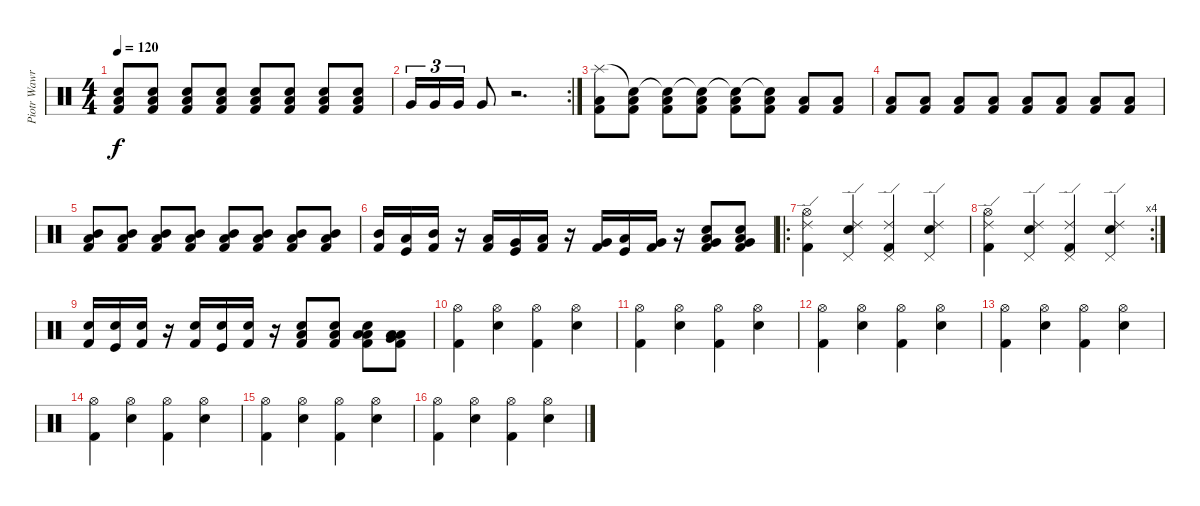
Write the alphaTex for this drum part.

\track ("Piotr Wawrzeniuk" "Piotr Wawr") {instrument percussion}
\staff {score}
\articulation defaults
\ts (4 4)
\tempo 120
\clef neutral
\ks c
("Electric Snare (hit)" "Low Floor Tom (hit)" "Kick (hit) 2").8{dy f} ("Electric Snare (hit)" "Low Floor Tom (hit)" "Kick (hit) 2").8 ("Electric Snare (hit)" "Low Floor Tom (hit)" "Kick (hit) 2").8 ("Electric Snare (hit)" "Low Floor Tom (hit)" "Kick (hit) 2").8 ("Electric Snare (hit)" "Low Floor Tom (hit)" "Kick (hit) 2").8 ("Electric Snare (hit)" "Low Floor Tom (hit)" "Kick (hit) 2").8 ("Electric Snare (hit)" "Low Floor Tom (hit)" "Kick (hit) 2").8 ("Electric Snare (hit)" "Low Floor Tom (hit)" "Kick (hit) 2").8 |
\rc 2 "Very Low Tom (hit)".16{tu (3 2)} "Very Low Tom (hit)".16{tu (3 2)} "Very Low Tom (hit)".16{tu (3 2)} "Very Low Tom (hit)".8
r.2{d} |
("Splash (hit)" "Low Floor Tom (hit)" "Kick (hit) 2").8 ("Snare (hit)"{t} "Low Floor Tom (hit)" "Kick (hit) 2").8 ("Snare (hit)"{t} "Low Floor Tom (hit)" "Kick (hit) 2").8 ("Snare (hit)"{t} "Low Floor Tom (hit)" "Kick (hit) 2").8 ("Snare (hit)"{t} "Low Floor Tom (hit)" "Kick (hit) 2").8 ("Snare (hit)"{t} "Low Floor Tom (hit)" "Kick (hit) 2").8 ("Low Floor Tom (hit)" "Kick (hit) 2").8 ("Low Floor Tom (hit)" "Kick (hit) 2").8 |
("Low Floor Tom (hit)" "Kick (hit) 2").8 ("Low Floor Tom (hit)" "Kick (hit) 2").8 ("Low Floor Tom (hit)" "Kick (hit) 2").8 ("Low Floor Tom (hit)" "Kick (hit) 2").8 ("Low Floor Tom (hit)" "Kick (hit) 2").8 ("Low Floor Tom (hit)" "Kick (hit) 2").8 ("Low Floor Tom (hit)" "Kick (hit) 2").8 ("Low Floor Tom (hit)" "Kick (hit) 2").8 |
("Mid Tom (hit)" "Low Floor Tom (hit)" "Kick (hit) 2").8 ("Mid Tom (hit)" "Low Floor Tom (hit)" "Kick (hit) 2").8 ("Mid Tom (hit)" "Low Floor Tom (hit)" "Kick (hit) 2").8 ("Mid Tom (hit)" "Low Floor Tom (hit)" "Kick (hit) 2").8 ("Mid Tom (hit)" "Low Floor Tom (hit)" "Kick (hit) 2").8 ("Mid Tom (hit)" "Low Floor Tom (hit)" "Kick (hit) 2").8 ("Mid Tom (hit)" "Low Floor Tom (hit)" "Kick (hit) 2").8 ("Mid Tom (hit)" "Low Floor Tom (hit)" "Kick (hit) 2").8 |
("Mid Tom (hit)" "Kick (hit) 2").16 ("Low Tom (hit)" "Kick (hit)").16 ("Mid Tom (hit)" "Kick (hit) 2").16 r.16 ("Low Tom (hit)" "Kick (hit) 2").16 ("Very Low Tom (hit)" "Kick (hit)").16 ("Low Tom (hit)" "Kick (hit) 2").16 r.16 ("Very Low Tom (hit)" "Kick (hit) 2").16 ("Low Floor Tom (hit)" "Kick (hit)").16 ("Very Low Tom (hit)" "Kick (hit) 2").16 r.16 ("Electric Snare (hit)" "Very Low Tom (hit)" "Low Floor Tom (hit)" "Kick (hit) 2").8 ("Electric Snare (hit)" "Very Low Tom (hit)" "Low Floor Tom (hit)" "Kick (hit) 2").8 |
\ro
("Ride (edge) 2" "Hi-Hat (open)" "Kick (hit) 2").4 ("Ride (edge) 2" "Electric Snare (hit)" "Pedal Hi-Hat (hit)").4 ("Ride (edge) 2" "Pedal Hi-Hat (hit)" "Kick (hit) 2").4 ("Ride (edge) 2" "Electric Snare (hit)" "Pedal Hi-Hat (hit)").4 |
\rc 4
("Ride (edge) 2" "Hi-Hat (open)" "Kick (hit) 2").4 ("Ride (edge) 2" "Electric Snare (hit)" "Pedal Hi-Hat (hit)").4 ("Ride (edge) 2" "Pedal Hi-Hat (hit)" "Kick (hit) 2").4 ("Ride (edge) 2" "Electric Snare (hit)" "Pedal Hi-Hat (hit)").4 |
("Electric Snare (hit)" "Kick (hit) 2").16 ("Electric Snare (hit)" "Kick (hit)").16 ("Electric Snare (hit)" "Kick (hit) 2").16 r.16 ("Electric Snare (hit)" "Kick (hit) 2").16 ("Electric Snare (hit)" "Kick (hit)").16 ("Electric Snare (hit)" "Kick (hit) 2").16 r.16 ("Electric Snare (hit)" "Low Floor Tom (hit)" "Kick (hit) 2").8 ("Electric Snare (hit)" "Low Floor Tom (hit)" "Kick (hit) 2").8 ("Electric Snare (hit)" "Low Tom (hit)" "Low Floor Tom (hit)" "Kick (hit) 2").8 ("Low Tom (hit)" "Very Low Tom (hit)" "Low Floor Tom (hit)" "Kick (hit) 2").8 |
("Hi-Hat (open)" "Kick (hit) 2").4 ("Electric Snare (hit)" "Hi-Hat (open)").4 ("Hi-Hat (open)" "Kick (hit) 2").4 ("Electric Snare (hit)" "Hi-Hat (open)").4 |
("Hi-Hat (open)" "Kick (hit) 2").4 ("Electric Snare (hit)" "Hi-Hat (open)").4 ("Hi-Hat (open)" "Kick (hit) 2").4 ("Electric Snare (hit)" "Hi-Hat (open)").4 |
("Hi-Hat (open)" "Kick (hit) 2").4 ("Electric Snare (hit)" "Hi-Hat (open)").4 ("Hi-Hat (open)" "Kick (hit) 2").4 ("Electric Snare (hit)" "Hi-Hat (open)").4 |
("Hi-Hat (open)" "Kick (hit) 2").4 ("Electric Snare (hit)" "Hi-Hat (open)").4 ("Hi-Hat (open)" "Kick (hit) 2").4 ("Electric Snare (hit)" "Hi-Hat (open)").4 |
("Hi-Hat (open)" "Kick (hit) 2").4 ("Electric Snare (hit)" "Hi-Hat (open)").4 ("Hi-Hat (open)" "Kick (hit) 2").4 ("Electric Snare (hit)" "Hi-Hat (open)").4 |
("Hi-Hat (open)" "Kick (hit) 2").4 ("Electric Snare (hit)" "Hi-Hat (open)").4 ("Hi-Hat (open)" "Kick (hit) 2").4 ("Electric Snare (hit)" "Hi-Hat (open)").4 |
("Hi-Hat (open)" "Kick (hit) 2").4 ("Electric Snare (hit)" "Hi-Hat (open)").4 ("Hi-Hat (open)" "Kick (hit) 2").4 ("Electric Snare (hit)" "Hi-Hat (open)").4
